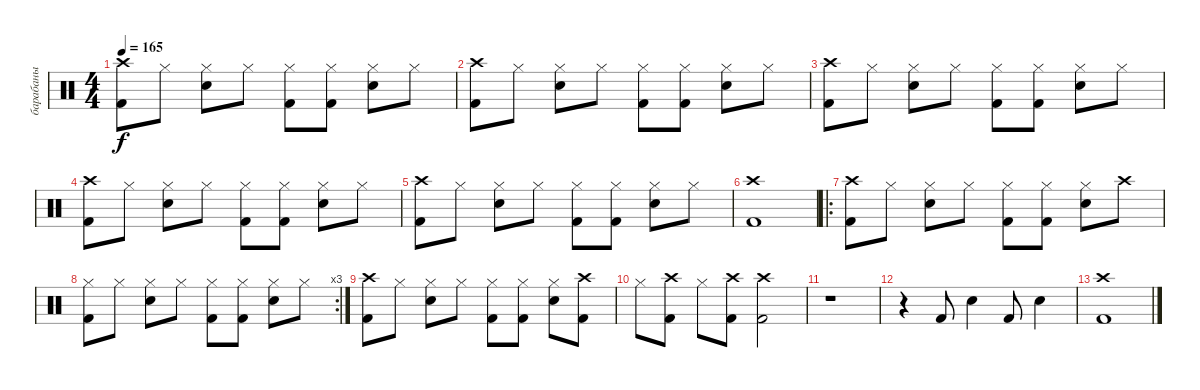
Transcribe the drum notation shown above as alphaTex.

\track ("барабаны" "барабаны") {instrument percussion}
\staff {score}
\articulation defaults
\ts (4 4)
\tempo 165
\clef neutral
\ks c
("Crash high (hit)" "Kick (hit) 2").8{dy f} "Hi-Hat (closed)".8 ("Hi-Hat (closed)" "Snare (hit) 2").8 "Hi-Hat (closed)".8 ("Hi-Hat (closed)" "Kick (hit) 2").8 ("Hi-Hat (closed)" "Kick (hit) 2").8 ("Hi-Hat (closed)" "Snare (hit) 2").8 "Hi-Hat (closed)".8 |
("Crash high (hit)" "Kick (hit) 2").8 "Hi-Hat (closed)".8 ("Hi-Hat (closed)" "Snare (hit) 2").8 "Hi-Hat (closed)".8 ("Hi-Hat (closed)" "Kick (hit) 2").8 ("Hi-Hat (closed)" "Kick (hit) 2").8 ("Hi-Hat (closed)" "Snare (hit) 2").8 "Hi-Hat (closed)".8 |
("Crash high (hit)" "Kick (hit) 2").8 "Hi-Hat (closed)".8 ("Hi-Hat (closed)" "Snare (hit) 2").8 "Hi-Hat (closed)".8 ("Hi-Hat (closed)" "Kick (hit) 2").8 ("Hi-Hat (closed)" "Kick (hit) 2").8 ("Hi-Hat (closed)" "Snare (hit) 2").8 "Hi-Hat (closed)".8 |
("Crash high (hit)" "Kick (hit) 2").8 "Hi-Hat (closed)".8 ("Hi-Hat (closed)" "Snare (hit) 2").8 "Hi-Hat (closed)".8 ("Hi-Hat (closed)" "Kick (hit) 2").8 ("Hi-Hat (closed)" "Kick (hit) 2").8 ("Hi-Hat (closed)" "Snare (hit) 2").8 "Hi-Hat (closed)".8 |
("Crash high (hit)" "Kick (hit) 2").8 "Hi-Hat (closed)".8 ("Hi-Hat (closed)" "Snare (hit) 2").8 "Hi-Hat (closed)".8 ("Hi-Hat (closed)" "Kick (hit) 2").8 ("Hi-Hat (closed)" "Kick (hit) 2").8 ("Hi-Hat (closed)" "Snare (hit) 2").8 "Hi-Hat (closed)".8 |
("Crash high (hit)" "Kick (hit) 2").1 |
\ro
("Crash high (hit)" "Kick (hit) 2").8 "Hi-Hat (closed)".8 ("Hi-Hat (closed)" "Snare (hit) 2").8 "Hi-Hat (closed)".8 ("Hi-Hat (closed)" "Kick (hit) 2").8 ("Hi-Hat (closed)" "Kick (hit) 2").8 ("Hi-Hat (closed)" "Snare (hit) 2").8 "Crash high (hit)".8 |
\rc 3
("Hi-Hat (closed)" "Kick (hit) 2").8 "Hi-Hat (closed)".8 ("Hi-Hat (closed)" "Snare (hit) 2").8 "Hi-Hat (closed)".8 ("Hi-Hat (closed)" "Kick (hit) 2").8 ("Hi-Hat (closed)" "Kick (hit) 2").8 ("Hi-Hat (closed)" "Snare (hit) 2").8 "Hi-Hat (closed)".8 |
("Crash high (hit)" "Kick (hit) 2").8 "Hi-Hat (closed)".8 ("Hi-Hat (closed)" "Snare (hit) 2").8 "Hi-Hat (closed)".8 ("Hi-Hat (closed)" "Kick (hit) 2").8 ("Hi-Hat (closed)" "Kick (hit) 2").8 ("Hi-Hat (closed)" "Snare (hit) 2").8 ("Crash high (hit)" "Kick (hit) 2").8 |
"Hi-Hat (closed)".8 ("Crash high (hit)" "Kick (hit) 2").8 "Hi-Hat (closed)".8 ("Crash high (hit)" "Kick (hit) 2").8 ("Crash high (hit)" "Kick (hit) 2").2 |
r.1 |
r.4 "Kick (hit) 2".8 "Snare (hit) 2".4 "Kick (hit) 2".8 "Snare (hit) 2".4 |
("Crash high (hit)" "Kick (hit) 2").1
